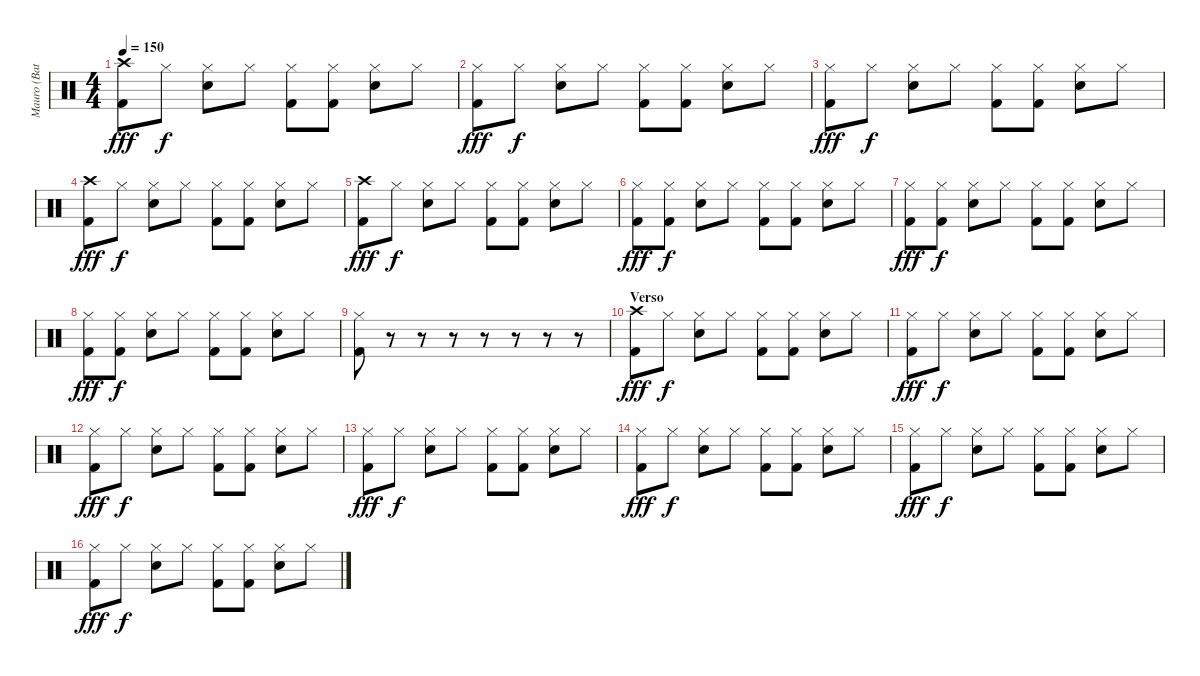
\track ("Mauro (Bateria)" "Mauro (Bat") {instrument percussion}
\staff {score}
\articulation defaults
\ts (4 4)
\tempo 150
\clef neutral
\ks c
("Crash high (hit)" "Kick (hit) 2").8{dy fff} "Hi-Hat (closed)".8{dy f} ("Hi-Hat (closed)" "Snare (hit) 2").8 "Hi-Hat (closed)".8 ("Hi-Hat (closed)" "Kick (hit) 2").8 ("Hi-Hat (closed)" "Kick (hit) 2").8 ("Hi-Hat (closed)" "Snare (hit) 2").8 "Hi-Hat (closed)".8 |
("Hi-Hat (closed)" "Kick (hit) 2").8{dy fff} "Hi-Hat (closed)".8{dy f} ("Hi-Hat (closed)" "Snare (hit) 2").8 "Hi-Hat (closed)".8 ("Hi-Hat (closed)" "Kick (hit) 2").8 ("Hi-Hat (closed)" "Kick (hit) 2").8 ("Hi-Hat (closed)" "Snare (hit) 2").8 "Hi-Hat (closed)".8 |
("Hi-Hat (closed)" "Kick (hit) 2").8{dy fff} "Hi-Hat (closed)".8{dy f} ("Hi-Hat (closed)" "Snare (hit) 2").8 "Hi-Hat (closed)".8 ("Hi-Hat (closed)" "Kick (hit) 2").8 ("Hi-Hat (closed)" "Kick (hit) 2").8 ("Hi-Hat (closed)" "Snare (hit) 2").8 "Hi-Hat (closed)".8 |
("Crash high (hit)" "Kick (hit) 2").8{dy fff} "Hi-Hat (closed)".8{dy f} ("Hi-Hat (closed)" "Snare (hit) 2").8 "Hi-Hat (closed)".8 ("Hi-Hat (closed)" "Kick (hit) 2").8 ("Hi-Hat (closed)" "Kick (hit) 2").8 ("Hi-Hat (closed)" "Snare (hit) 2").8 "Hi-Hat (closed)".8 |
("Crash high (hit)" "Kick (hit) 2").8{dy fff} "Hi-Hat (closed)".8{dy f} ("Hi-Hat (closed)" "Snare (hit) 2").8 "Hi-Hat (closed)".8 ("Hi-Hat (closed)" "Kick (hit) 2").8 ("Hi-Hat (closed)" "Kick (hit) 2").8 ("Hi-Hat (closed)" "Snare (hit) 2").8 "Hi-Hat (closed)".8 |
("Hi-Hat (closed)" "Kick (hit) 2").8{dy fff} ("Hi-Hat (closed)" "Kick (hit) 2").8{dy f} ("Hi-Hat (closed)" "Snare (hit) 2").8 "Hi-Hat (closed)".8 ("Hi-Hat (closed)" "Kick (hit) 2").8 ("Hi-Hat (closed)" "Kick (hit) 2").8 ("Hi-Hat (closed)" "Snare (hit) 2").8 "Hi-Hat (closed)".8 |
("Hi-Hat (closed)" "Kick (hit) 2").8{dy fff} ("Hi-Hat (closed)" "Kick (hit) 2").8{dy f} ("Hi-Hat (closed)" "Snare (hit) 2").8 "Hi-Hat (closed)".8 ("Hi-Hat (closed)" "Kick (hit) 2").8 ("Hi-Hat (closed)" "Kick (hit) 2").8 ("Hi-Hat (closed)" "Snare (hit) 2").8 "Hi-Hat (closed)".8 |
("Hi-Hat (closed)" "Kick (hit) 2").8{dy fff} ("Hi-Hat (closed)" "Kick (hit) 2").8{dy f} ("Hi-Hat (closed)" "Snare (hit) 2").8 "Hi-Hat (closed)".8 ("Hi-Hat (closed)" "Kick (hit) 2").8 ("Hi-Hat (closed)" "Kick (hit) 2").8 ("Hi-Hat (closed)" "Snare (hit) 2").8 "Hi-Hat (closed)".8 |
("Hi-Hat (closed)" "Kick (hit) 2").8 r.8 r.8 r.8 r.8 r.8 r.8 r.8 |
\section ("" "Verso")
("Crash high (hit)" "Kick (hit) 2").8{dy fff} "Hi-Hat (closed)".8{dy f} ("Hi-Hat (closed)" "Snare (hit) 2").8 "Hi-Hat (closed)".8 ("Hi-Hat (closed)" "Kick (hit) 2").8 ("Hi-Hat (closed)" "Kick (hit) 2").8 ("Hi-Hat (closed)" "Snare (hit) 2").8 "Hi-Hat (closed)".8 |
("Hi-Hat (closed)" "Kick (hit) 2").8{dy fff} "Hi-Hat (closed)".8{dy f} ("Hi-Hat (closed)" "Snare (hit) 2").8 "Hi-Hat (closed)".8 ("Hi-Hat (closed)" "Kick (hit) 2").8 ("Hi-Hat (closed)" "Kick (hit) 2").8 ("Hi-Hat (closed)" "Snare (hit) 2").8 "Hi-Hat (closed)".8 |
("Hi-Hat (closed)" "Kick (hit) 2").8{dy fff} "Hi-Hat (closed)".8{dy f} ("Hi-Hat (closed)" "Snare (hit) 2").8 "Hi-Hat (closed)".8 ("Hi-Hat (closed)" "Kick (hit) 2").8 ("Hi-Hat (closed)" "Kick (hit) 2").8 ("Hi-Hat (closed)" "Snare (hit) 2").8 "Hi-Hat (closed)".8 |
("Hi-Hat (closed)" "Kick (hit) 2").8{dy fff} "Hi-Hat (closed)".8{dy f} ("Hi-Hat (closed)" "Snare (hit) 2").8 "Hi-Hat (closed)".8 ("Hi-Hat (closed)" "Kick (hit) 2").8 ("Hi-Hat (closed)" "Kick (hit) 2").8 ("Hi-Hat (closed)" "Snare (hit) 2").8 "Hi-Hat (closed)".8 |
("Hi-Hat (closed)" "Kick (hit) 2").8{dy fff} "Hi-Hat (closed)".8{dy f} ("Hi-Hat (closed)" "Snare (hit) 2").8 "Hi-Hat (closed)".8 ("Hi-Hat (closed)" "Kick (hit) 2").8 ("Hi-Hat (closed)" "Kick (hit) 2").8 ("Hi-Hat (closed)" "Snare (hit) 2").8 "Hi-Hat (closed)".8 |
("Hi-Hat (closed)" "Kick (hit) 2").8{dy fff} "Hi-Hat (closed)".8{dy f} ("Hi-Hat (closed)" "Snare (hit) 2").8 "Hi-Hat (closed)".8 ("Hi-Hat (closed)" "Kick (hit) 2").8 ("Hi-Hat (closed)" "Kick (hit) 2").8 ("Hi-Hat (closed)" "Snare (hit) 2").8 "Hi-Hat (closed)".8 |
("Hi-Hat (closed)" "Kick (hit) 2").8{dy fff} "Hi-Hat (closed)".8{dy f} ("Hi-Hat (closed)" "Snare (hit) 2").8 "Hi-Hat (closed)".8 ("Hi-Hat (closed)" "Kick (hit) 2").8 ("Hi-Hat (closed)" "Kick (hit) 2").8 ("Hi-Hat (closed)" "Snare (hit) 2").8 "Hi-Hat (closed)".8
